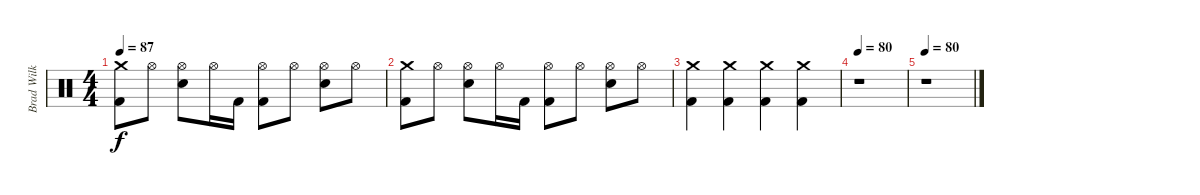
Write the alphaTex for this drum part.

\track ("Brad Wilk" "Brad Wilk") {instrument percussion}
\staff {score}
\articulation defaults
\ts (4 4)
\tempo 87
\clef neutral
\ks c
("Crash medium (hit)" "Kick (hit) 2").8{dy f} "Hi-Hat (open)".8 ("Hi-Hat (open)" "Electric Snare (hit)").8 "Hi-Hat (open)".16 "Kick (hit) 2".16 ("Hi-Hat (open)" "Kick (hit) 2").8 "Hi-Hat (open)".8 ("Hi-Hat (open)" "Electric Snare (hit)").8 "Hi-Hat (open)".8 |
("Crash medium (hit)" "Kick (hit) 2").8 "Hi-Hat (open)".8 ("Hi-Hat (open)" "Electric Snare (hit)").8 "Hi-Hat (open)".16 "Kick (hit) 2".16 ("Hi-Hat (open)" "Kick (hit) 2").8 "Hi-Hat (open)".8 ("Hi-Hat (open)" "Electric Snare (hit)").8 "Hi-Hat (open)".8 |
("Crash medium (hit)" "Kick (hit) 2").4 ("Crash medium (hit)" "Kick (hit) 2").4 ("Crash medium (hit)" "Kick (hit) 2").4 ("Crash medium (hit)" "Kick (hit) 2").4 |
\tempo 80
r.1 |
\tempo 80
r.1
